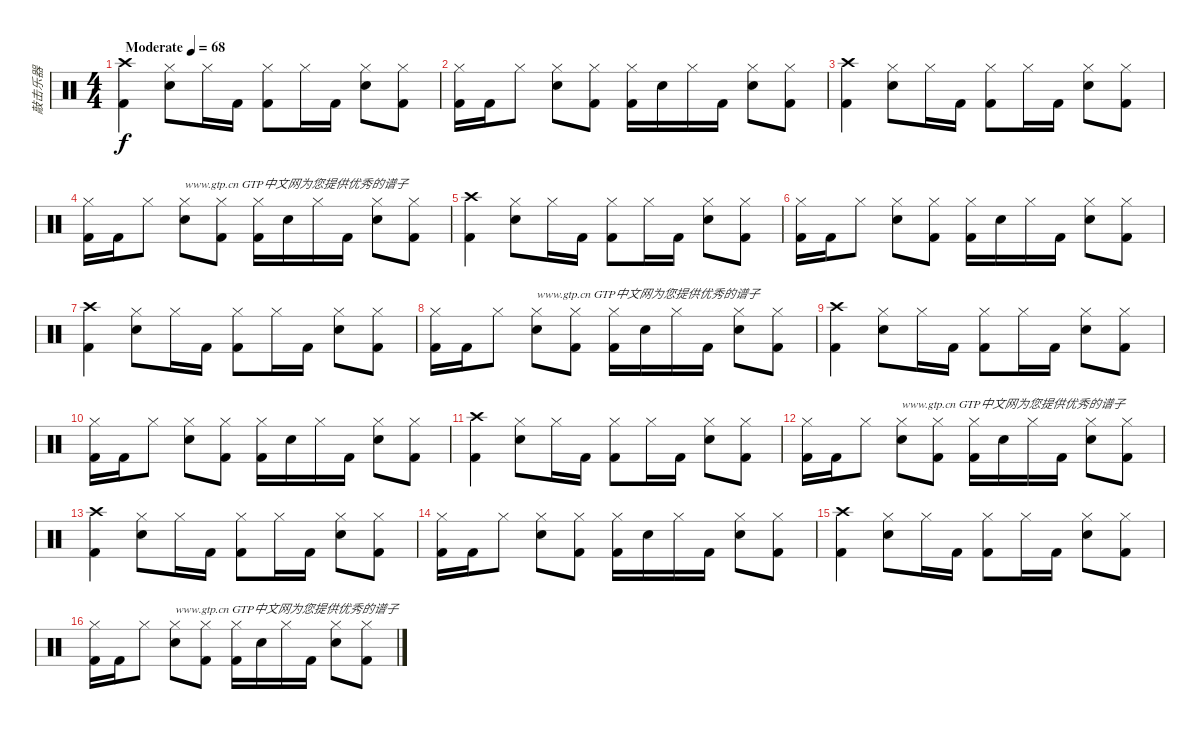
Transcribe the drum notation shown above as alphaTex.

\track ("敲击乐器" "敲击乐器") {instrument percussion}
\staff {score}
\articulation defaults
\ts (4 4)
\tempo (68 "Moderate")
\clef neutral
\ks c
("Crash high (hit)" "Kick (hit) 2").4{dy f} ("Hi-Hat (closed)" "Snare (hit) 2").8 "Hi-Hat (closed)".16 "Kick (hit) 2".16 ("Hi-Hat (closed)" "Kick (hit) 2").8 "Hi-Hat (closed)".16 "Kick (hit) 2".16 ("Hi-Hat (closed)" "Snare (hit) 2").8 ("Hi-Hat (closed)" "Kick (hit) 2").8 |
("Hi-Hat (closed)" "Kick (hit) 2").16 "Kick (hit) 2".16 "Hi-Hat (closed)".8 ("Hi-Hat (closed)" "Snare (hit) 2").8 ("Hi-Hat (closed)" "Kick (hit) 2").8 ("Hi-Hat (closed)" "Kick (hit) 2").16 "Snare (hit) 2".16 "Hi-Hat (closed)".16 "Kick (hit) 2".16 ("Hi-Hat (closed)" "Snare (hit) 2").8 ("Hi-Hat (closed)" "Kick (hit) 2").8 |
("Crash high (hit)" "Kick (hit) 2").4 ("Hi-Hat (closed)" "Snare (hit) 2").8 "Hi-Hat (closed)".16 "Kick (hit) 2".16 ("Hi-Hat (closed)" "Kick (hit) 2").8 "Hi-Hat (closed)".16 "Kick (hit) 2".16 ("Hi-Hat (closed)" "Snare (hit) 2").8 ("Hi-Hat (closed)" "Kick (hit) 2").8 |
("Hi-Hat (closed)" "Kick (hit) 2").16 "Kick (hit) 2".16 "Hi-Hat (closed)".8 ("Hi-Hat (closed)" "Snare (hit) 2").8{txt "www.gtp.cn GTP中文网为您提供优秀的谱子"} ("Hi-Hat (closed)" "Kick (hit) 2").8 ("Hi-Hat (closed)" "Kick (hit) 2").16 "Snare (hit) 2".16 "Hi-Hat (closed)".16 "Kick (hit) 2".16 ("Hi-Hat (closed)" "Snare (hit) 2").8 ("Hi-Hat (closed)" "Kick (hit) 2").8 |
("Crash high (hit)" "Kick (hit) 2").4 ("Hi-Hat (closed)" "Snare (hit) 2").8 "Hi-Hat (closed)".16 "Kick (hit) 2".16 ("Hi-Hat (closed)" "Kick (hit) 2").8 "Hi-Hat (closed)".16 "Kick (hit) 2".16 ("Hi-Hat (closed)" "Snare (hit) 2").8 ("Hi-Hat (closed)" "Kick (hit) 2").8 |
("Hi-Hat (closed)" "Kick (hit) 2").16 "Kick (hit) 2".16 "Hi-Hat (closed)".8 ("Hi-Hat (closed)" "Snare (hit) 2").8 ("Hi-Hat (closed)" "Kick (hit) 2").8 ("Hi-Hat (closed)" "Kick (hit) 2").16 "Snare (hit) 2".16 "Hi-Hat (closed)".16 "Kick (hit) 2".16 ("Hi-Hat (closed)" "Snare (hit) 2").8 ("Hi-Hat (closed)" "Kick (hit) 2").8 |
("Crash high (hit)" "Kick (hit) 2").4 ("Hi-Hat (closed)" "Snare (hit) 2").8 "Hi-Hat (closed)".16 "Kick (hit) 2".16 ("Hi-Hat (closed)" "Kick (hit) 2").8 "Hi-Hat (closed)".16 "Kick (hit) 2".16 ("Hi-Hat (closed)" "Snare (hit) 2").8 ("Hi-Hat (closed)" "Kick (hit) 2").8 |
("Hi-Hat (closed)" "Kick (hit) 2").16 "Kick (hit) 2".16 "Hi-Hat (closed)".8 ("Hi-Hat (closed)" "Snare (hit) 2").8{txt "www.gtp.cn GTP中文网为您提供优秀的谱子"} ("Hi-Hat (closed)" "Kick (hit) 2").8 ("Hi-Hat (closed)" "Kick (hit) 2").16 "Snare (hit) 2".16 "Hi-Hat (closed)".16 "Kick (hit) 2".16 ("Hi-Hat (closed)" "Snare (hit) 2").8 ("Hi-Hat (closed)" "Kick (hit) 2").8 |
("Crash high (hit)" "Kick (hit) 2").4 ("Hi-Hat (closed)" "Snare (hit) 2").8 "Hi-Hat (closed)".16 "Kick (hit) 2".16 ("Hi-Hat (closed)" "Kick (hit) 2").8 "Hi-Hat (closed)".16 "Kick (hit) 2".16 ("Hi-Hat (closed)" "Snare (hit) 2").8 ("Hi-Hat (closed)" "Kick (hit) 2").8 |
("Hi-Hat (closed)" "Kick (hit) 2").16 "Kick (hit) 2".16 "Hi-Hat (closed)".8 ("Hi-Hat (closed)" "Snare (hit) 2").8 ("Hi-Hat (closed)" "Kick (hit) 2").8 ("Hi-Hat (closed)" "Kick (hit) 2").16 "Snare (hit) 2".16 "Hi-Hat (closed)".16 "Kick (hit) 2".16 ("Hi-Hat (closed)" "Snare (hit) 2").8 ("Hi-Hat (closed)" "Kick (hit) 2").8 |
("Crash high (hit)" "Kick (hit) 2").4 ("Hi-Hat (closed)" "Snare (hit) 2").8 "Hi-Hat (closed)".16 "Kick (hit) 2".16 ("Hi-Hat (closed)" "Kick (hit) 2").8 "Hi-Hat (closed)".16 "Kick (hit) 2".16 ("Hi-Hat (closed)" "Snare (hit) 2").8 ("Hi-Hat (closed)" "Kick (hit) 2").8 |
("Hi-Hat (closed)" "Kick (hit) 2").16 "Kick (hit) 2".16 "Hi-Hat (closed)".8 ("Hi-Hat (closed)" "Snare (hit) 2").8{txt "www.gtp.cn GTP中文网为您提供优秀的谱子"} ("Hi-Hat (closed)" "Kick (hit) 2").8 ("Hi-Hat (closed)" "Kick (hit) 2").16 "Snare (hit) 2".16 "Hi-Hat (closed)".16 "Kick (hit) 2".16 ("Hi-Hat (closed)" "Snare (hit) 2").8 ("Hi-Hat (closed)" "Kick (hit) 2").8 |
("Crash high (hit)" "Kick (hit) 2").4 ("Hi-Hat (closed)" "Snare (hit) 2").8 "Hi-Hat (closed)".16 "Kick (hit) 2".16 ("Hi-Hat (closed)" "Kick (hit) 2").8 "Hi-Hat (closed)".16 "Kick (hit) 2".16 ("Hi-Hat (closed)" "Snare (hit) 2").8 ("Hi-Hat (closed)" "Kick (hit) 2").8 |
("Hi-Hat (closed)" "Kick (hit) 2").16 "Kick (hit) 2".16 "Hi-Hat (closed)".8 ("Hi-Hat (closed)" "Snare (hit) 2").8 ("Hi-Hat (closed)" "Kick (hit) 2").8 ("Hi-Hat (closed)" "Kick (hit) 2").16 "Snare (hit) 2".16 "Hi-Hat (closed)".16 "Kick (hit) 2".16 ("Hi-Hat (closed)" "Snare (hit) 2").8 ("Hi-Hat (closed)" "Kick (hit) 2").8 |
("Crash high (hit)" "Kick (hit) 2").4 ("Hi-Hat (closed)" "Snare (hit) 2").8 "Hi-Hat (closed)".16 "Kick (hit) 2".16 ("Hi-Hat (closed)" "Kick (hit) 2").8 "Hi-Hat (closed)".16 "Kick (hit) 2".16 ("Hi-Hat (closed)" "Snare (hit) 2").8 ("Hi-Hat (closed)" "Kick (hit) 2").8 |
("Hi-Hat (closed)" "Kick (hit) 2").16 "Kick (hit) 2".16 "Hi-Hat (closed)".8 ("Hi-Hat (closed)" "Snare (hit) 2").8{txt "www.gtp.cn GTP中文网为您提供优秀的谱子"} ("Hi-Hat (closed)" "Kick (hit) 2").8 ("Hi-Hat (closed)" "Kick (hit) 2").16 "Snare (hit) 2".16 "Hi-Hat (closed)".16 "Kick (hit) 2".16 ("Hi-Hat (closed)" "Snare (hit) 2").8 ("Hi-Hat (closed)" "Kick (hit) 2").8
